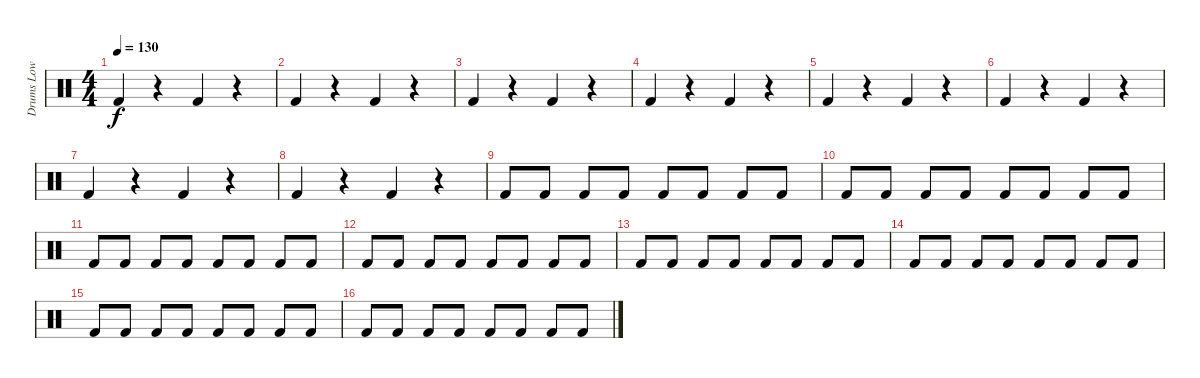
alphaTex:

\track ("Drums Low" "Drums Low") {instrument percussion}
\staff {score}
\articulation defaults
\ts (4 4)
\tempo 130
\clef neutral
\ks c "Kick (hit) 2".4{dy f}
r.4 "Kick (hit) 2".4 r.4 |
"Kick (hit) 2".4 r.4 "Kick (hit) 2".4 r.4 |
"Kick (hit) 2".4 r.4 "Kick (hit) 2".4 r.4 |
"Kick (hit) 2".4 r.4 "Kick (hit) 2".4 r.4 |
"Kick (hit) 2".4 r.4 "Kick (hit) 2".4 r.4 |
"Kick (hit) 2".4 r.4 "Kick (hit) 2".4 r.4 |
"Kick (hit) 2".4 r.4 "Kick (hit) 2".4 r.4 |
"Kick (hit) 2".4 r.4 "Kick (hit) 2".4 r.4 |
"Kick (hit) 2".8{volume 14} "Kick (hit) 2".8 "Kick (hit) 2".8 "Kick (hit) 2".8 "Kick (hit) 2".8 "Kick (hit) 2".8 "Kick (hit) 2".8 "Kick (hit) 2".8 |
"Kick (hit) 2".8 "Kick (hit) 2".8 "Kick (hit) 2".8 "Kick (hit) 2".8 "Kick (hit) 2".8 "Kick (hit) 2".8 "Kick (hit) 2".8 "Kick (hit) 2".8 |
"Kick (hit) 2".8 "Kick (hit) 2".8 "Kick (hit) 2".8 "Kick (hit) 2".8 "Kick (hit) 2".8 "Kick (hit) 2".8 "Kick (hit) 2".8 "Kick (hit) 2".8 |
"Kick (hit) 2".8 "Kick (hit) 2".8 "Kick (hit) 2".8 "Kick (hit) 2".8 "Kick (hit) 2".8 "Kick (hit) 2".8 "Kick (hit) 2".8 "Kick (hit) 2".8 |
"Kick (hit) 2".8 "Kick (hit) 2".8 "Kick (hit) 2".8 "Kick (hit) 2".8 "Kick (hit) 2".8 "Kick (hit) 2".8 "Kick (hit) 2".8 "Kick (hit) 2".8 |
"Kick (hit) 2".8 "Kick (hit) 2".8 "Kick (hit) 2".8 "Kick (hit) 2".8 "Kick (hit) 2".8 "Kick (hit) 2".8 "Kick (hit) 2".8 "Kick (hit) 2".8 |
"Kick (hit) 2".8 "Kick (hit) 2".8 "Kick (hit) 2".8 "Kick (hit) 2".8 "Kick (hit) 2".8 "Kick (hit) 2".8 "Kick (hit) 2".8 "Kick (hit) 2".8 |
"Kick (hit) 2".8 "Kick (hit) 2".8 "Kick (hit) 2".8 "Kick (hit) 2".8 "Kick (hit) 2".8 "Kick (hit) 2".8 "Kick (hit) 2".8 "Kick (hit) 2".8
